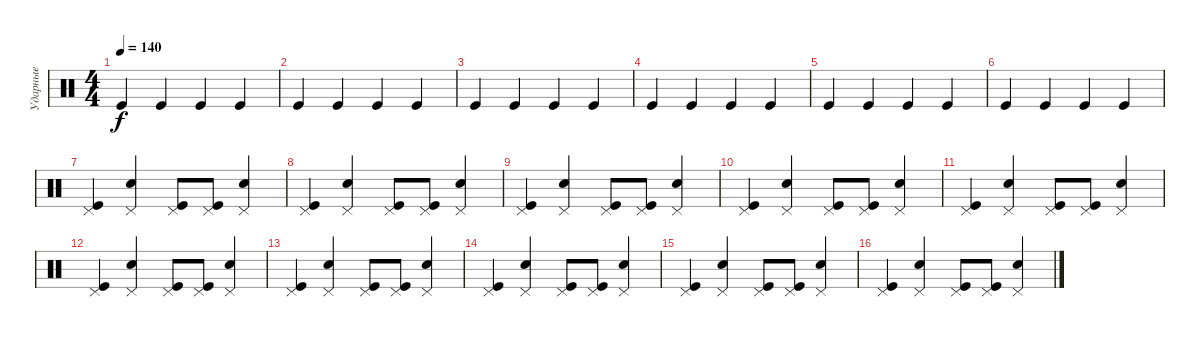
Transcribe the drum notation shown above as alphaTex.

\track ("Ударные" "Ударные") {instrument percussion}
\staff {score}
\articulation defaults
\ts (4 4)
\tempo 140
\clef neutral
\ks c "Kick (hit)".4{dy f} "Kick (hit)".4 "Kick (hit)".4 "Kick (hit)".4
|
"Kick (hit)".4 "Kick (hit)".4 "Kick (hit)".4 "Kick (hit)".4 |
"Kick (hit)".4 "Kick (hit)".4 "Kick (hit)".4 "Kick (hit)".4 |
"Kick (hit)".4 "Kick (hit)".4 "Kick (hit)".4 "Kick (hit)".4 |
"Kick (hit)".4 "Kick (hit)".4 "Kick (hit)".4 "Kick (hit)".4 |
"Kick (hit)".4 "Kick (hit)".4 "Kick (hit)".4 "Kick (hit)".4 |
("Kick (hit)" "Pedal Hi-Hat (hit)").4 ("Electric Snare (hit)" "Pedal Hi-Hat (hit)").4 ("Kick (hit)" "Pedal Hi-Hat (hit)").8 ("Kick (hit)" "Pedal Hi-Hat (hit)").8 ("Electric Snare (hit)" "Pedal Hi-Hat (hit)").4 |
("Kick (hit)" "Pedal Hi-Hat (hit)").4 ("Electric Snare (hit)" "Pedal Hi-Hat (hit)").4 ("Kick (hit)" "Pedal Hi-Hat (hit)").8 ("Kick (hit)" "Pedal Hi-Hat (hit)").8 ("Electric Snare (hit)" "Pedal Hi-Hat (hit)").4 |
("Kick (hit)" "Pedal Hi-Hat (hit)").4 ("Electric Snare (hit)" "Pedal Hi-Hat (hit)").4 ("Kick (hit)" "Pedal Hi-Hat (hit)").8 ("Kick (hit)" "Pedal Hi-Hat (hit)").8 ("Electric Snare (hit)" "Pedal Hi-Hat (hit)").4 |
("Kick (hit)" "Pedal Hi-Hat (hit)").4 ("Electric Snare (hit)" "Pedal Hi-Hat (hit)").4 ("Kick (hit)" "Pedal Hi-Hat (hit)").8 ("Kick (hit)" "Pedal Hi-Hat (hit)").8 ("Electric Snare (hit)" "Pedal Hi-Hat (hit)").4 |
("Kick (hit)" "Pedal Hi-Hat (hit)").4 ("Electric Snare (hit)" "Pedal Hi-Hat (hit)").4 ("Kick (hit)" "Pedal Hi-Hat (hit)").8 ("Kick (hit)" "Pedal Hi-Hat (hit)").8 ("Electric Snare (hit)" "Pedal Hi-Hat (hit)").4 |
("Kick (hit)" "Pedal Hi-Hat (hit)").4 ("Electric Snare (hit)" "Pedal Hi-Hat (hit)").4 ("Kick (hit)" "Pedal Hi-Hat (hit)").8 ("Kick (hit)" "Pedal Hi-Hat (hit)").8 ("Electric Snare (hit)" "Pedal Hi-Hat (hit)").4 |
("Kick (hit)" "Pedal Hi-Hat (hit)").4 ("Electric Snare (hit)" "Pedal Hi-Hat (hit)").4 ("Kick (hit)" "Pedal Hi-Hat (hit)").8 ("Kick (hit)" "Pedal Hi-Hat (hit)").8 ("Electric Snare (hit)" "Pedal Hi-Hat (hit)").4 |
("Kick (hit)" "Pedal Hi-Hat (hit)").4 ("Electric Snare (hit)" "Pedal Hi-Hat (hit)").4 ("Kick (hit)" "Pedal Hi-Hat (hit)").8 ("Kick (hit)" "Pedal Hi-Hat (hit)").8 ("Electric Snare (hit)" "Pedal Hi-Hat (hit)").4 |
("Kick (hit)" "Pedal Hi-Hat (hit)").4 ("Electric Snare (hit)" "Pedal Hi-Hat (hit)").4 ("Kick (hit)" "Pedal Hi-Hat (hit)").8 ("Kick (hit)" "Pedal Hi-Hat (hit)").8 ("Electric Snare (hit)" "Pedal Hi-Hat (hit)").4 |
("Kick (hit)" "Pedal Hi-Hat (hit)").4 ("Electric Snare (hit)" "Pedal Hi-Hat (hit)").4 ("Kick (hit)" "Pedal Hi-Hat (hit)").8 ("Kick (hit)" "Pedal Hi-Hat (hit)").8 ("Electric Snare (hit)" "Pedal Hi-Hat (hit)").4
